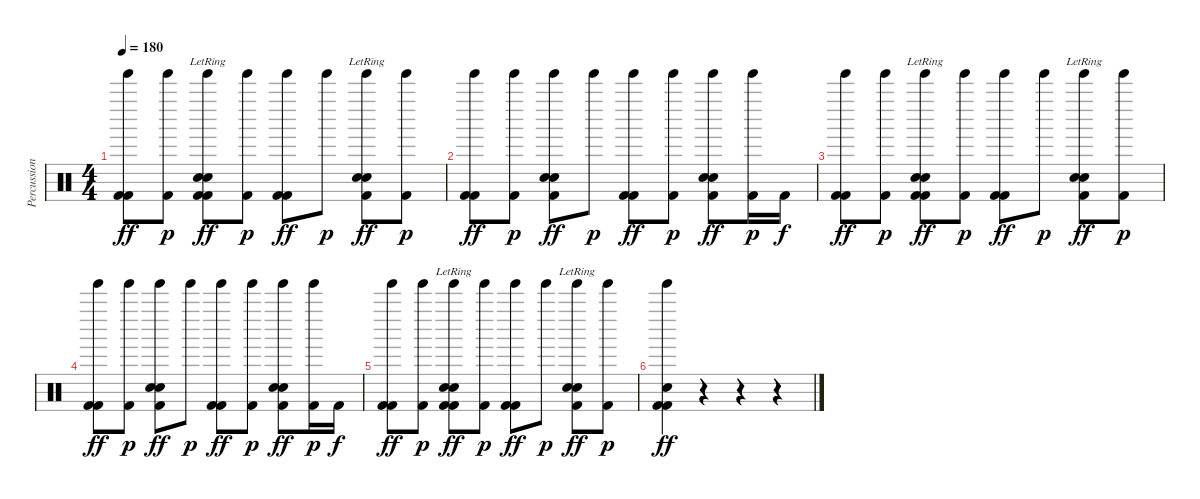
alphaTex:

\track ("Percussion" "Percussion") {instrument percussion}
\staff {score}
\articulation defaults
\ts (4 4)
\tempo 180
\clef neutral
\ks c
("Tinkle Bell (hit)" "Kick (hit) 2" "Kick (hit) 2").8{dy ff} ("Tinkle Bell (hit)" "Kick (hit) 2").8{dy p} ("Tinkle Bell (hit)" "Snare (hit) 2"{lr} "Electric Snare (hit)" "Kick (hit) 2" "Kick (hit) 2").8{dy ff} ("Tinkle Bell (hit)" "Kick (hit) 2").8{dy p} ("Tinkle Bell (hit)" "Kick (hit) 2" "Kick (hit) 2").8{dy ff} "Tinkle Bell (hit)".8{dy p} ("Tinkle Bell (hit)" "Snare (hit) 2"{lr} "Electric Snare (hit)" "Kick (hit) 2").8{dy ff} ("Tinkle Bell (hit)" "Kick (hit) 2").8{dy p} |
("Tinkle Bell (hit)" "Kick (hit) 2" "Kick (hit) 2").8{dy ff} ("Tinkle Bell (hit)" "Kick (hit) 2").8{dy p} ("Tinkle Bell (hit)" "Snare (hit) 2" "Electric Snare (hit)" "Kick (hit) 2").8{dy ff} "Tinkle Bell (hit)".8{dy p} ("Tinkle Bell (hit)" "Kick (hit) 2" "Kick (hit) 2").8{dy ff} ("Tinkle Bell (hit)" "Kick (hit) 2").8{dy p} ("Tinkle Bell (hit)" "Snare (hit) 2" "Electric Snare (hit)" "Kick (hit) 2").8{dy ff} ("Tinkle Bell (hit)" "Kick (hit) 2").16{dy p} "Kick (hit) 2".16{dy f} |
("Tinkle Bell (hit)" "Kick (hit) 2" "Kick (hit) 2").8{dy ff} ("Tinkle Bell (hit)" "Kick (hit) 2").8{dy p} ("Tinkle Bell (hit)" "Snare (hit) 2"{lr} "Electric Snare (hit)" "Kick (hit) 2" "Kick (hit) 2").8{dy ff} ("Tinkle Bell (hit)" "Kick (hit) 2").8{dy p} ("Tinkle Bell (hit)" "Kick (hit) 2" "Kick (hit) 2").8{dy ff} "Tinkle Bell (hit)".8{dy p} ("Tinkle Bell (hit)" "Snare (hit) 2"{lr} "Electric Snare (hit)" "Kick (hit) 2").8{dy ff} ("Tinkle Bell (hit)" "Kick (hit) 2").8{dy p} |
("Tinkle Bell (hit)" "Kick (hit) 2" "Kick (hit) 2").8{dy ff} ("Tinkle Bell (hit)" "Kick (hit) 2").8{dy p} ("Tinkle Bell (hit)" "Snare (hit) 2" "Electric Snare (hit)" "Kick (hit) 2").8{dy ff} "Tinkle Bell (hit)".8{dy p} ("Tinkle Bell (hit)" "Kick (hit) 2" "Kick (hit) 2").8{dy ff} ("Tinkle Bell (hit)" "Kick (hit) 2").8{dy p} ("Tinkle Bell (hit)" "Snare (hit) 2" "Electric Snare (hit)" "Kick (hit) 2").8{dy ff} ("Tinkle Bell (hit)" "Kick (hit) 2").16{dy p} "Kick (hit) 2".16{dy f} |
("Tinkle Bell (hit)" "Kick (hit) 2" "Kick (hit) 2").8{dy ff} ("Tinkle Bell (hit)" "Kick (hit) 2").8{dy p} ("Tinkle Bell (hit)" "Snare (hit) 2"{lr} "Electric Snare (hit)" "Kick (hit) 2" "Kick (hit) 2").8{dy ff} ("Tinkle Bell (hit)" "Kick (hit) 2").8{dy p} ("Tinkle Bell (hit)" "Kick (hit) 2" "Kick (hit) 2").8{dy ff} "Tinkle Bell (hit)".8{dy p} ("Tinkle Bell (hit)" "Snare (hit) 2"{lr} "Electric Snare (hit)" "Kick (hit) 2").8{dy ff} ("Tinkle Bell (hit)" "Kick (hit) 2").8{dy p} |
("Tinkle Bell (hit)" "Electric Snare (hit)" "Kick (hit) 2" "Kick (hit) 2").4{dy ff} r.4 r.4 r.4
